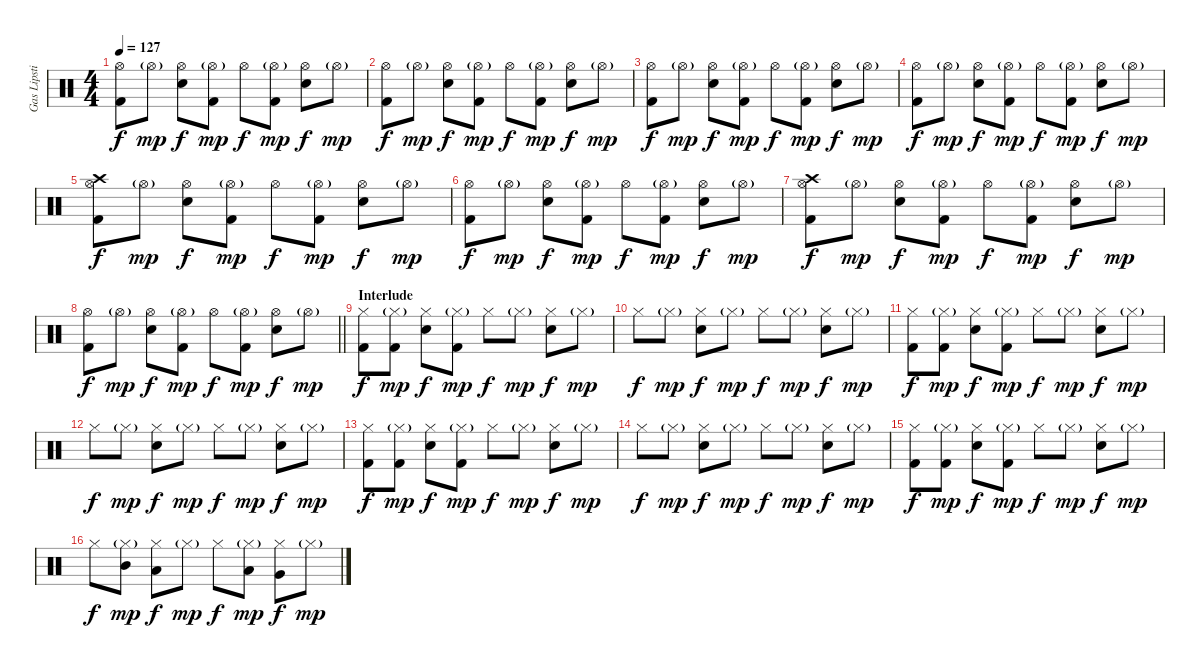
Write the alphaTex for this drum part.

\track ("Gas Lipstick (Drums)" "Gas Lipsti") {instrument percussion}
\staff {score}
\articulation defaults
\ts (4 4)
\tempo 127
\clef neutral
\ks c
("Hi-Hat (open)" "Kick (hit) 2").8{dy f} "Hi-Hat (open)"{g}.8{dy mp} ("Hi-Hat (open)" "Snare (hit) 2").8{dy f} ("Hi-Hat (open)"{g} "Kick (hit) 2").8{dy mp} "Hi-Hat (open)".8{dy f} ("Hi-Hat (open)"{g} "Kick (hit) 2").8{dy mp} ("Hi-Hat (open)" "Snare (hit) 2").8{dy f} "Hi-Hat (open)"{g}.8{dy mp} |
("Hi-Hat (open)" "Kick (hit) 2").8{dy f} "Hi-Hat (open)"{g}.8{dy mp} ("Hi-Hat (open)" "Snare (hit) 2").8{dy f} ("Hi-Hat (open)"{g} "Kick (hit) 2").8{dy mp} "Hi-Hat (open)".8{dy f} ("Hi-Hat (open)"{g} "Kick (hit) 2").8{dy mp} ("Hi-Hat (open)" "Snare (hit) 2").8{dy f} "Hi-Hat (open)"{g}.8{dy mp} |
("Hi-Hat (open)" "Kick (hit) 2").8{dy f} "Hi-Hat (open)"{g}.8{dy mp} ("Hi-Hat (open)" "Snare (hit) 2").8{dy f} ("Hi-Hat (open)"{g} "Kick (hit) 2").8{dy mp} "Hi-Hat (open)".8{dy f} ("Hi-Hat (open)"{g} "Kick (hit) 2").8{dy mp} ("Hi-Hat (open)" "Snare (hit) 2").8{dy f} "Hi-Hat (open)"{g}.8{dy mp} |
("Hi-Hat (open)" "Kick (hit) 2").8{dy f} "Hi-Hat (open)"{g}.8{dy mp} ("Hi-Hat (open)" "Snare (hit) 2").8{dy f} ("Hi-Hat (open)"{g} "Kick (hit) 2").8{dy mp} "Hi-Hat (open)".8{dy f} ("Hi-Hat (open)"{g} "Kick (hit) 2").8{dy mp} ("Hi-Hat (open)" "Snare (hit) 2").8{dy f} "Hi-Hat (open)"{g}.8{dy mp} |
("Crash high (hit)" "Hi-Hat (open)" "Kick (hit) 2").8{dy f} "Hi-Hat (open)"{g}.8{dy mp} ("Hi-Hat (open)" "Snare (hit) 2").8{dy f} ("Hi-Hat (open)"{g} "Kick (hit) 2").8{dy mp} "Hi-Hat (open)".8{dy f} ("Hi-Hat (open)"{g} "Kick (hit) 2").8{dy mp} ("Hi-Hat (open)" "Snare (hit) 2").8{dy f} "Hi-Hat (open)"{g}.8{dy mp} |
("Hi-Hat (open)" "Kick (hit) 2").8{dy f} "Hi-Hat (open)"{g}.8{dy mp} ("Hi-Hat (open)" "Snare (hit) 2").8{dy f} ("Hi-Hat (open)"{g} "Kick (hit) 2").8{dy mp} "Hi-Hat (open)".8{dy f} ("Hi-Hat (open)"{g} "Kick (hit) 2").8{dy mp} ("Hi-Hat (open)" "Snare (hit) 2").8{dy f} "Hi-Hat (open)"{g}.8{dy mp} |
("Crash high (hit)" "Hi-Hat (open)" "Kick (hit) 2").8{dy f} "Hi-Hat (open)"{g}.8{dy mp} ("Hi-Hat (open)" "Snare (hit) 2").8{dy f} ("Hi-Hat (open)"{g} "Kick (hit) 2").8{dy mp} "Hi-Hat (open)".8{dy f} ("Hi-Hat (open)"{g} "Kick (hit) 2").8{dy mp} ("Hi-Hat (open)" "Snare (hit) 2").8{dy f} "Hi-Hat (open)"{g}.8{dy mp} |
\barLineRight lightlight
("Hi-Hat (open)" "Kick (hit) 2").8{dy f} "Hi-Hat (open)"{g}.8{dy mp} ("Hi-Hat (open)" "Snare (hit) 2").8{dy f} ("Hi-Hat (open)"{g} "Kick (hit) 2").8{dy mp} "Hi-Hat (open)".8{dy f} ("Hi-Hat (open)"{g} "Kick (hit) 2").8{dy mp} ("Hi-Hat (open)" "Snare (hit) 2").8{dy f} "Hi-Hat (open)"{g}.8{dy mp} |
\section ("" "Interlude")
("Hi-Hat (closed)" "Kick (hit) 2").8{dy f} ("Hi-Hat (closed)"{g} "Kick (hit) 2").8{dy mp} ("Hi-Hat (closed)" "Snare (hit) 2").8{dy f} ("Hi-Hat (closed)"{g} "Kick (hit) 2").8{dy mp} "Hi-Hat (closed)".8{dy f} "Hi-Hat (closed)"{g}.8{dy mp} ("Hi-Hat (closed)" "Snare (hit) 2").8{dy f} "Hi-Hat (closed)"{g}.8{dy mp} |
"Hi-Hat (closed)".8{dy f} "Hi-Hat (closed)"{g}.8{dy mp} ("Hi-Hat (closed)" "Snare (hit) 2").8{dy f} "Hi-Hat (closed)"{g}.8{dy mp} "Hi-Hat (closed)".8{dy f} "Hi-Hat (closed)"{g}.8{dy mp} ("Hi-Hat (closed)" "Snare (hit) 2").8{dy f} "Hi-Hat (closed)"{g}.8{dy mp} |
("Hi-Hat (closed)" "Kick (hit) 2").8{dy f} ("Hi-Hat (closed)"{g} "Kick (hit) 2").8{dy mp} ("Hi-Hat (closed)" "Snare (hit) 2").8{dy f} ("Hi-Hat (closed)"{g} "Kick (hit) 2").8{dy mp} "Hi-Hat (closed)".8{dy f} "Hi-Hat (closed)"{g}.8{dy mp} ("Hi-Hat (closed)" "Snare (hit) 2").8{dy f} "Hi-Hat (closed)"{g}.8{dy mp} |
"Hi-Hat (closed)".8{dy f} "Hi-Hat (closed)"{g}.8{dy mp} ("Hi-Hat (closed)" "Snare (hit) 2").8{dy f} "Hi-Hat (closed)"{g}.8{dy mp} "Hi-Hat (closed)".8{dy f} "Hi-Hat (closed)"{g}.8{dy mp} ("Hi-Hat (closed)" "Snare (hit) 2").8{dy f} "Hi-Hat (closed)"{g}.8{dy mp} |
("Hi-Hat (closed)" "Kick (hit) 2").8{dy f} ("Hi-Hat (closed)"{g} "Kick (hit) 2").8{dy mp} ("Hi-Hat (closed)" "Snare (hit) 2").8{dy f} ("Hi-Hat (closed)"{g} "Kick (hit) 2").8{dy mp} "Hi-Hat (closed)".8{dy f} "Hi-Hat (closed)"{g}.8{dy mp} ("Hi-Hat (closed)" "Snare (hit) 2").8{dy f} "Hi-Hat (closed)"{g}.8{dy mp} |
"Hi-Hat (closed)".8{dy f} "Hi-Hat (closed)"{g}.8{dy mp} ("Hi-Hat (closed)" "Snare (hit) 2").8{dy f} "Hi-Hat (closed)"{g}.8{dy mp} "Hi-Hat (closed)".8{dy f} "Hi-Hat (closed)"{g}.8{dy mp} ("Hi-Hat (closed)" "Snare (hit) 2").8{dy f} "Hi-Hat (closed)"{g}.8{dy mp} |
("Hi-Hat (closed)" "Kick (hit) 2").8{dy f} ("Hi-Hat (closed)"{g} "Kick (hit) 2").8{dy mp} ("Hi-Hat (closed)" "Snare (hit) 2").8{dy f} ("Hi-Hat (closed)"{g} "Kick (hit) 2").8{dy mp} "Hi-Hat (closed)".8{dy f} "Hi-Hat (closed)"{g}.8{dy mp} ("Hi-Hat (closed)" "Snare (hit) 2").8{dy f} "Hi-Hat (closed)"{g}.8{dy mp} |
"Hi-Hat (closed)".8{dy f} ("Hi-Hat (closed)"{g} "Mid Tom (hit)").8{dy mp balance 16} ("Hi-Hat (closed)" "Low Tom (hit)").8{dy f} "Hi-Hat (closed)"{g}.8{dy mp balance 8} "Hi-Hat (closed)".8{dy f} ("Hi-Hat (closed)"{g} "Low Tom (hit)").8{dy mp balance 0} ("Hi-Hat (closed)" "Very Low Tom (hit)").8{dy f} "Hi-Hat (closed)"{g}.8{dy mp balance 8}
